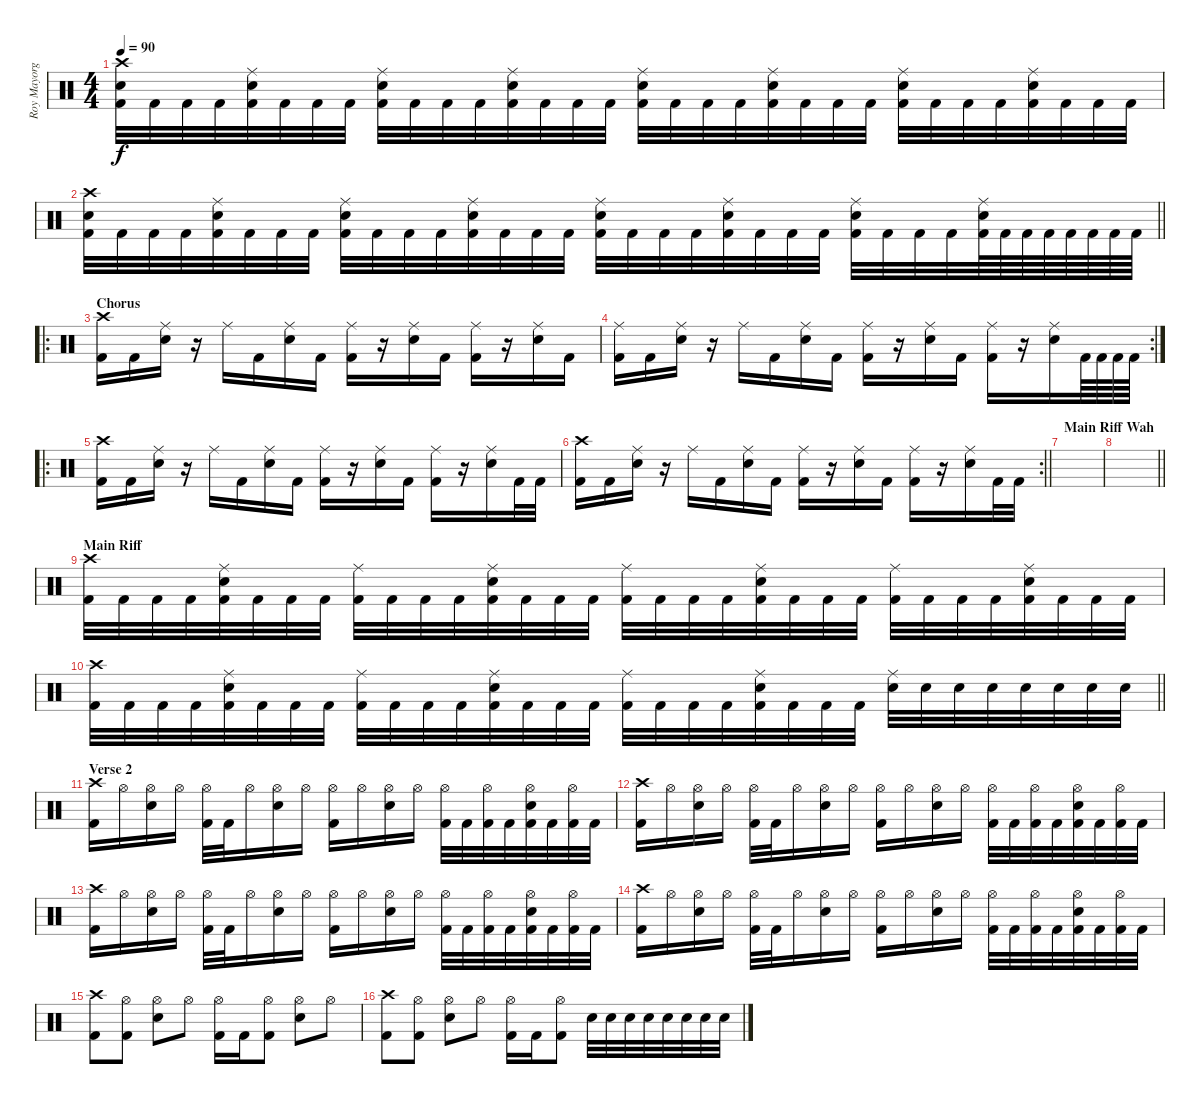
\track ("Roy Mayorga" "Roy Mayorg") {instrument percussion}
\staff {score}
\articulation defaults
\ts (4 4)
\tempo 90
\clef neutral
\ks c
("Kick (hit) 2" "Electric Snare (hit)" "Crash high (hit)").32{dy f} "Kick (hit) 2".32 "Kick (hit) 2".32 "Kick (hit) 2".32 ("Kick (hit) 2" "Electric Snare (hit)" "Ride (middle)").32 "Kick (hit) 2".32 "Kick (hit) 2".32 "Kick (hit) 2".32 ("Kick (hit) 2" "Electric Snare (hit)" "Ride (middle)").32 "Kick (hit) 2".32 "Kick (hit) 2".32 "Kick (hit) 2".32 ("Kick (hit) 2" "Electric Snare (hit)" "Ride (middle)").32 "Kick (hit) 2".32 "Kick (hit) 2".32 "Kick (hit) 2".32 ("Kick (hit) 2" "Electric Snare (hit)" "Ride (middle)").32 "Kick (hit) 2".32 "Kick (hit) 2".32 "Kick (hit) 2".32 ("Kick (hit) 2" "Electric Snare (hit)" "Ride (middle)").32 "Kick (hit) 2".32 "Kick (hit) 2".32 "Kick (hit) 2".32 ("Kick (hit) 2" "Electric Snare (hit)" "Ride (middle)").32 "Kick (hit) 2".32 "Kick (hit) 2".32 "Kick (hit) 2".32 ("Kick (hit) 2" "Electric Snare (hit)" "Ride (middle)").32 "Kick (hit) 2".32 "Kick (hit) 2".32 "Kick (hit) 2".32 |
\barLineRight lightlight
("Kick (hit) 2" "Electric Snare (hit)" "Crash high (hit)").32 "Kick (hit) 2".32 "Kick (hit) 2".32 "Kick (hit) 2".32 ("Kick (hit) 2" "Electric Snare (hit)" "Ride (middle)").32 "Kick (hit) 2".32 "Kick (hit) 2".32 "Kick (hit) 2".32 ("Kick (hit) 2" "Electric Snare (hit)" "Ride (middle)").32 "Kick (hit) 2".32 "Kick (hit) 2".32 "Kick (hit) 2".32 ("Kick (hit) 2" "Electric Snare (hit)" "Ride (middle)").32 "Kick (hit) 2".32 "Kick (hit) 2".32 "Kick (hit) 2".32 ("Kick (hit) 2" "Electric Snare (hit)" "Ride (middle)").32 "Kick (hit) 2".32 "Kick (hit) 2".32 "Kick (hit) 2".32 ("Kick (hit) 2" "Electric Snare (hit)" "Ride (middle)").32 "Kick (hit) 2".32 "Kick (hit) 2".32 "Kick (hit) 2".32 ("Kick (hit) 2" "Electric Snare (hit)" "Ride (middle)").32 "Kick (hit) 2".32 "Kick (hit) 2".32 "Kick (hit) 2".32 ("Kick (hit) 2" "Electric Snare (hit)" "Ride (middle)").64 "Kick (hit) 2".64 "Kick (hit) 2".64 "Kick (hit) 2".64 "Kick (hit) 2".64 "Kick (hit) 2".64 "Kick (hit) 2".64 "Kick (hit) 2".64 |
\ro
\section ("" "Chorus")
("Kick (hit) 2" "Crash high (hit)").16 "Kick (hit) 2".16 ("Electric Snare (hit)" "Ride (middle)").16 r.16 "Ride (middle)".16 "Kick (hit) 2".16 ("Electric Snare (hit)" "Ride (middle)").16 "Kick (hit) 2".16 ("Kick (hit) 2" "Ride (middle)").16 r.16 ("Electric Snare (hit)" "Ride (middle)").16 "Kick (hit) 2".16 ("Kick (hit) 2" "Ride (middle)").16 r.16 ("Electric Snare (hit)" "Ride (middle)").16 "Kick (hit) 2".16 |
\rc 2
("Kick (hit) 2" "Ride (middle)").16 "Kick (hit) 2".16 ("Electric Snare (hit)" "Ride (middle)").16 r.16 "Ride (middle)".16 "Kick (hit) 2".16 ("Electric Snare (hit)" "Ride (middle)").16 "Kick (hit) 2".16 ("Kick (hit) 2" "Ride (middle)").16 r.16 ("Electric Snare (hit)" "Ride (middle)").16 "Kick (hit) 2".16 ("Kick (hit) 2" "Ride (middle)").16 r.16 ("Electric Snare (hit)" "Ride (middle)").16 "Kick (hit) 2".64 "Kick (hit) 2".64 "Kick (hit) 2".64 "Kick (hit) 2".64 |
\ro
("Kick (hit) 2" "Crash high (hit)").16 "Kick (hit) 2".16 ("Electric Snare (hit)" "Ride (middle)").16 r.16 "Ride (middle)".16 "Kick (hit) 2".16 ("Electric Snare (hit)" "Ride (middle)").16 "Kick (hit) 2".16 ("Kick (hit) 2" "Ride (middle)").16 r.16 ("Electric Snare (hit)" "Ride (middle)").16 "Kick (hit) 2".16 ("Kick (hit) 2" "Ride (middle)").16 r.16 ("Electric Snare (hit)" "Ride (middle)").16 "Kick (hit) 2".32 "Kick (hit) 2".32 |
\rc 2
\barLineRight lightlight
("Kick (hit) 2" "Crash high (hit)").16 "Kick (hit) 2".16 ("Electric Snare (hit)" "Ride (middle)").16 r.16 "Ride (middle)".16 "Kick (hit) 2".16 ("Electric Snare (hit)" "Ride (middle)").16 "Kick (hit) 2".16 ("Kick (hit) 2" "Ride (middle)").16 r.16 ("Electric Snare (hit)" "Ride (middle)").16 "Kick (hit) 2".16 ("Kick (hit) 2" "Ride (middle)").16 r.16 ("Electric Snare (hit)" "Ride (middle)").16 "Kick (hit) 2".32 "Kick (hit) 2".32 |
\section ("" "Main Riff Wah")
|
\barLineRight lightlight
|
\section ("" "Main Riff")
("Kick (hit) 2" "Crash high (hit)").32 "Kick (hit) 2".32 "Kick (hit) 2".32 "Kick (hit) 2".32 ("Kick (hit) 2" "Electric Snare (hit)" "Ride (middle)").32 "Kick (hit) 2".32 "Kick (hit) 2".32 "Kick (hit) 2".32 ("Kick (hit) 2" "Ride (middle)").32 "Kick (hit) 2".32 "Kick (hit) 2".32 "Kick (hit) 2".32 ("Kick (hit) 2" "Electric Snare (hit)" "Ride (middle)").32 "Kick (hit) 2".32 "Kick (hit) 2".32 "Kick (hit) 2".32 ("Kick (hit) 2" "Ride (middle)").32 "Kick (hit) 2".32 "Kick (hit) 2".32 "Kick (hit) 2".32 ("Kick (hit) 2" "Electric Snare (hit)" "Ride (middle)").32 "Kick (hit) 2".32 "Kick (hit) 2".32 "Kick (hit) 2".32 ("Kick (hit) 2" "Ride (middle)").32 "Kick (hit) 2".32 "Kick (hit) 2".32 "Kick (hit) 2".32 ("Kick (hit) 2" "Electric Snare (hit)" "Ride (middle)").32 "Kick (hit) 2".32 "Kick (hit) 2".32 "Kick (hit) 2".32 |
\barLineRight lightlight
("Kick (hit) 2" "Crash high (hit)").32 "Kick (hit) 2".32 "Kick (hit) 2".32 "Kick (hit) 2".32 ("Kick (hit) 2" "Electric Snare (hit)" "Ride (middle)").32 "Kick (hit) 2".32 "Kick (hit) 2".32 "Kick (hit) 2".32 ("Kick (hit) 2" "Ride (middle)").32 "Kick (hit) 2".32 "Kick (hit) 2".32 "Kick (hit) 2".32 ("Kick (hit) 2" "Electric Snare (hit)" "Ride (middle)").32 "Kick (hit) 2".32 "Kick (hit) 2".32 "Kick (hit) 2".32 ("Kick (hit) 2" "Ride (middle)").32 "Kick (hit) 2".32 "Kick (hit) 2".32 "Kick (hit) 2".32 ("Kick (hit) 2" "Electric Snare (hit)" "Ride (middle)").32 "Kick (hit) 2".32 "Kick (hit) 2".32 "Kick (hit) 2".32 ("Electric Snare (hit)" "Ride (middle)").32 "Electric Snare (hit)".32 "Electric Snare (hit)".32 "Electric Snare (hit)".32 "Electric Snare (hit)".32 "Electric Snare (hit)".32 "Electric Snare (hit)".32 "Electric Snare (hit)".32 |
\section ("" "Verse 2")
("Kick (hit) 2" "Crash high (hit)").16 "Hi-Hat (open)".16 ("Electric Snare (hit)" "Hi-Hat (open)").16 "Hi-Hat (open)".16 ("Kick (hit) 2" "Hi-Hat (open)").32 "Kick (hit) 2".32 "Hi-Hat (open)".16 ("Electric Snare (hit)" "Hi-Hat (open)").16 "Hi-Hat (open)".16 ("Kick (hit) 2" "Hi-Hat (open)").16 "Hi-Hat (open)".16 ("Electric Snare (hit)" "Hi-Hat (open)").16 "Hi-Hat (open)".16 ("Kick (hit) 2" "Hi-Hat (open)").32 "Kick (hit) 2".32 ("Kick (hit) 2" "Hi-Hat (open)").32 "Kick (hit) 2".32 ("Kick (hit) 2" "Electric Snare (hit)" "Hi-Hat (open)").32 "Kick (hit) 2".32 ("Kick (hit) 2" "Hi-Hat (open)").32 "Kick (hit) 2".32 |
("Kick (hit) 2" "Crash high (hit)").16 "Hi-Hat (open)".16 ("Electric Snare (hit)" "Hi-Hat (open)").16 "Hi-Hat (open)".16 ("Kick (hit) 2" "Hi-Hat (open)").32 "Kick (hit) 2".32 "Hi-Hat (open)".16 ("Electric Snare (hit)" "Hi-Hat (open)").16 "Hi-Hat (open)".16 ("Kick (hit) 2" "Hi-Hat (open)").16 "Hi-Hat (open)".16 ("Electric Snare (hit)" "Hi-Hat (open)").16 "Hi-Hat (open)".16 ("Kick (hit) 2" "Hi-Hat (open)").32 "Kick (hit) 2".32 ("Kick (hit) 2" "Hi-Hat (open)").32 "Kick (hit) 2".32 ("Kick (hit) 2" "Electric Snare (hit)" "Hi-Hat (open)").32 "Kick (hit) 2".32 ("Kick (hit) 2" "Hi-Hat (open)").32 "Kick (hit) 2".32 |
("Kick (hit) 2" "Crash high (hit)").16 "Hi-Hat (open)".16 ("Electric Snare (hit)" "Hi-Hat (open)").16 "Hi-Hat (open)".16 ("Kick (hit) 2" "Hi-Hat (open)").32 "Kick (hit) 2".32 "Hi-Hat (open)".16 ("Electric Snare (hit)" "Hi-Hat (open)").16 "Hi-Hat (open)".16 ("Kick (hit) 2" "Hi-Hat (open)").16 "Hi-Hat (open)".16 ("Electric Snare (hit)" "Hi-Hat (open)").16 "Hi-Hat (open)".16 ("Kick (hit) 2" "Hi-Hat (open)").32 "Kick (hit) 2".32 ("Kick (hit) 2" "Hi-Hat (open)").32 "Kick (hit) 2".32 ("Kick (hit) 2" "Electric Snare (hit)" "Hi-Hat (open)").32 "Kick (hit) 2".32 ("Kick (hit) 2" "Hi-Hat (open)").32 "Kick (hit) 2".32 |
("Kick (hit) 2" "Crash high (hit)").16 "Hi-Hat (open)".16 ("Electric Snare (hit)" "Hi-Hat (open)").16 "Hi-Hat (open)".16 ("Kick (hit) 2" "Hi-Hat (open)").32 "Kick (hit) 2".32 "Hi-Hat (open)".16 ("Electric Snare (hit)" "Hi-Hat (open)").16 "Hi-Hat (open)".16 ("Kick (hit) 2" "Hi-Hat (open)").16 "Hi-Hat (open)".16 ("Electric Snare (hit)" "Hi-Hat (open)").16 "Hi-Hat (open)".16 ("Kick (hit) 2" "Hi-Hat (open)").32 "Kick (hit) 2".32 ("Kick (hit) 2" "Hi-Hat (open)").32 "Kick (hit) 2".32 ("Kick (hit) 2" "Electric Snare (hit)" "Hi-Hat (open)").32 "Kick (hit) 2".32 ("Kick (hit) 2" "Hi-Hat (open)").32 "Kick (hit) 2".32 |
("Kick (hit) 2" "Crash high (hit)").8 ("Kick (hit) 2" "Hi-Hat (open)").8 ("Electric Snare (hit)" "Hi-Hat (open)").8 "Hi-Hat (open)".8 ("Kick (hit) 2" "Hi-Hat (open)").16 "Kick (hit) 2".16 ("Kick (hit) 2" "Hi-Hat (open)").8 ("Electric Snare (hit)" "Hi-Hat (open)").8 "Hi-Hat (open)".8 |
("Kick (hit) 2" "Crash high (hit)").8 ("Kick (hit) 2" "Hi-Hat (open)").8 ("Electric Snare (hit)" "Hi-Hat (open)").8 "Hi-Hat (open)".8 ("Kick (hit) 2" "Hi-Hat (open)").16 "Kick (hit) 2".16 ("Kick (hit) 2" "Hi-Hat (open)").8 "Electric Snare (hit)".32 "Electric Snare (hit)".32 "Electric Snare (hit)".32 "Electric Snare (hit)".32 "Electric Snare (hit)".32 "Electric Snare (hit)".32 "Electric Snare (hit)".32 "Electric Snare (hit)".32
